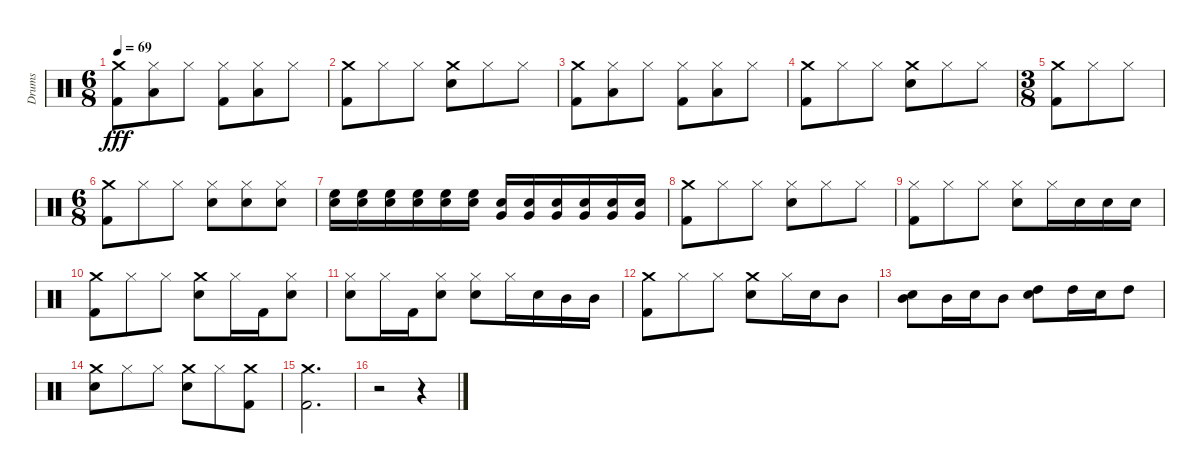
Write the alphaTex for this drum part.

\track ("Drums" "Drums") {instrument percussion}
\staff {score}
\articulation defaults
\ts (6 8)
\tempo 69
\clef neutral
\ks c
("Kick (hit) 2" "Crash medium (hit)").8{dy fff} ("Low Tom (hit)" "Hi-Hat (closed)").8 "Hi-Hat (closed)".8 ("Kick (hit) 2" "Hi-Hat (closed)").8 ("Low Tom (hit)" "Hi-Hat (closed)").8 "Hi-Hat (closed)".8 |
("Kick (hit) 2" "Crash medium (hit)").8 "Hi-Hat (closed)".8 "Hi-Hat (closed)".8 ("Snare (hit) 2" "Crash medium (hit)").8 "Hi-Hat (closed)".8 "Hi-Hat (closed)".8 |
("Kick (hit) 2" "Crash medium (hit)").8 ("Low Tom (hit)" "Hi-Hat (closed)").8 "Hi-Hat (closed)".8 ("Kick (hit) 2" "Hi-Hat (closed)").8 ("Low Tom (hit)" "Hi-Hat (closed)").8 "Hi-Hat (closed)".8 |
("Kick (hit) 2" "Crash medium (hit)").8 "Hi-Hat (closed)".8 "Hi-Hat (closed)".8 ("Snare (hit) 2" "Crash medium (hit)").8 "Hi-Hat (closed)".8 "Hi-Hat (closed)".8 |
\ts (3 8)
("Kick (hit) 2" "Crash medium (hit)").8 "Hi-Hat (closed)".8 "Hi-Hat (closed)".8 |
\ts (6 8)
("Kick (hit) 2" "Crash medium (hit)").8 "Hi-Hat (closed)".8 "Hi-Hat (closed)".8 ("Snare (hit) 2" "Hi-Hat (closed)").8 ("Hi-Hat (closed)" "Snare (hit) 2").8 ("Snare (hit) 2" "Hi-Hat (closed)").8 |
("High Floor Tom (hit)" "Snare (hit) 2").16 ("High Floor Tom (hit)" "Snare (hit) 2").16 ("High Floor Tom (hit)" "Snare (hit) 2").16 ("High Floor Tom (hit)" "Snare (hit) 2").16 ("High Floor Tom (hit)" "Snare (hit) 2").16 ("High Floor Tom (hit)" "Snare (hit) 2").16 ("Very Low Tom (hit)" "Snare (hit) 2").16 ("Very Low Tom (hit)" "Snare (hit) 2").16 ("Very Low Tom (hit)" "Snare (hit) 2").16 ("Very Low Tom (hit)" "Snare (hit) 2").16 ("Very Low Tom (hit)" "Snare (hit) 2").16 ("Very Low Tom (hit)" "Snare (hit) 2").16 |
("Kick (hit) 2" "Crash medium (hit)").8 "Hi-Hat (closed)".8 "Hi-Hat (closed)".8 ("Snare (hit) 2" "Hi-Hat (closed)").8 "Hi-Hat (closed)".8 "Hi-Hat (closed)".8 |
("Kick (hit) 2" "Hi-Hat (closed)").8 "Hi-Hat (closed)".8 "Hi-Hat (closed)".8 ("Snare (hit) 2" "Hi-Hat (closed)").8 "Hi-Hat (closed)".16 "Snare (hit) 2".16 "Snare (hit) 2".16 "Snare (hit) 2".16 |
("Kick (hit) 2" "Crash medium (hit)").8 "Hi-Hat (closed)".8 "Hi-Hat (closed)".8 ("Snare (hit) 2" "Crash medium (hit)").8 "Hi-Hat (closed)".16 "Kick (hit) 2".16 ("Snare (hit) 2" "Hi-Hat (closed)").8 |
("Snare (hit) 2" "Hi-Hat (closed)").8 "Hi-Hat (closed)".16 "Kick (hit) 2".16 ("Snare (hit) 2" "Hi-Hat (closed)").8 ("Snare (hit) 2" "Hi-Hat (closed)").8 "Hi-Hat (closed)".16 "Snare (hit) 2".16 "Mid Tom (hit)".16 "Mid Tom (hit)".16 |
("Kick (hit) 2" "Crash medium (hit)").8 "Hi-Hat (closed)".8 "Hi-Hat (closed)".8 ("Snare (hit) 2" "Crash medium (hit)").8 "Hi-Hat (closed)".16 "Snare (hit) 2".16 "Mid Tom (hit)".8 |
("Mid Tom (hit)" "Snare (hit) 2").8 "Mid Tom (hit)".16 "Snare (hit) 2".16 "Mid Tom (hit)".8 ("High Tom (hit)" "Snare (hit) 2").8 "High Tom (hit)".16 "Snare (hit) 2".16 "High Tom (hit)".8 |
("Snare (hit) 2" "Crash medium (hit)").8 "Hi-Hat (closed)".8 "Hi-Hat (closed)".8 ("Snare (hit) 2" "Crash medium (hit)").8 "Hi-Hat (closed)".8 ("Kick (hit) 2" "Crash medium (hit)").8 |
("Kick (hit) 2" "Crash medium (hit)").2{d} |
r.2 r.4
